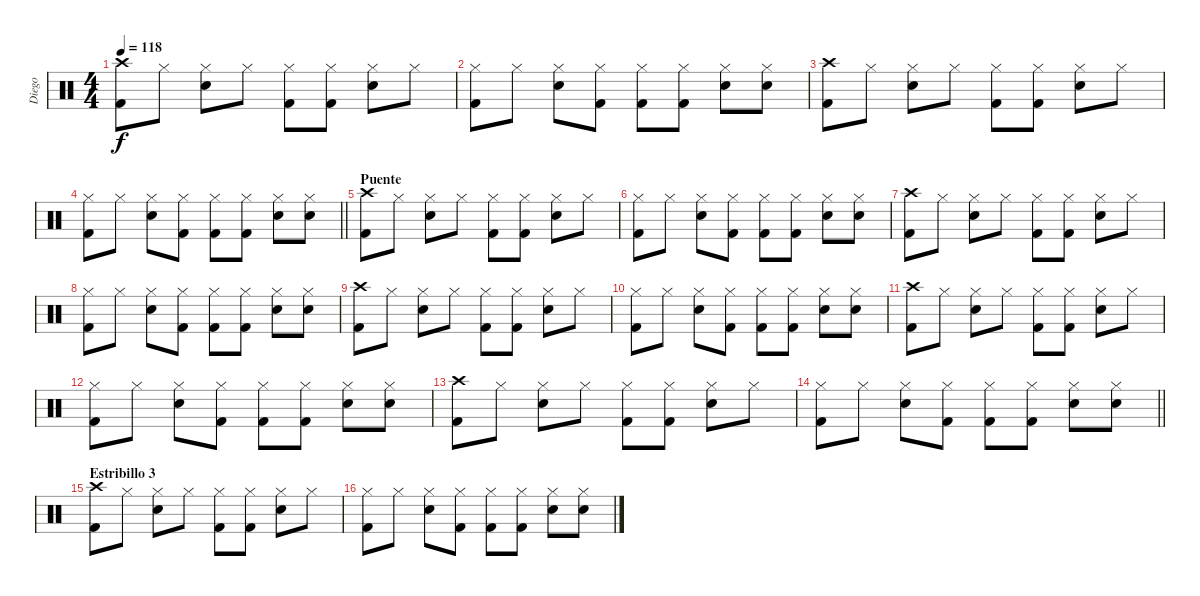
\track ("Diego" "Diego") {instrument percussion}
\staff {score}
\articulation defaults
\ts (4 4)
\tempo 118
\clef neutral
\ks c
("Crash high (hit)" "Kick (hit) 2").8{dy f} "Hi-Hat (closed)".8 ("Hi-Hat (closed)" "Snare (hit) 2").8 "Hi-Hat (closed)".8 ("Hi-Hat (closed)" "Kick (hit) 2").8 ("Hi-Hat (closed)" "Kick (hit) 2").8 ("Hi-Hat (closed)" "Snare (hit) 2").8 "Hi-Hat (closed)".8 |
("Hi-Hat (closed)" "Kick (hit) 2").8 "Hi-Hat (closed)".8 ("Hi-Hat (closed)" "Snare (hit) 2").8 ("Hi-Hat (closed)" "Kick (hit) 2").8 ("Hi-Hat (closed)" "Kick (hit) 2").8 ("Hi-Hat (closed)" "Kick (hit) 2").8 ("Hi-Hat (closed)" "Snare (hit) 2").8 ("Hi-Hat (closed)" "Snare (hit) 2").8 |
("Crash high (hit)" "Kick (hit) 2").8 "Hi-Hat (closed)".8 ("Hi-Hat (closed)" "Snare (hit) 2").8 "Hi-Hat (closed)".8 ("Hi-Hat (closed)" "Kick (hit) 2").8 ("Hi-Hat (closed)" "Kick (hit) 2").8 ("Hi-Hat (closed)" "Snare (hit) 2").8 "Hi-Hat (closed)".8 |
\barLineRight lightlight
("Hi-Hat (closed)" "Kick (hit) 2").8 "Hi-Hat (closed)".8 ("Hi-Hat (closed)" "Snare (hit) 2").8 ("Hi-Hat (closed)" "Kick (hit) 2").8 ("Hi-Hat (closed)" "Kick (hit) 2").8 ("Hi-Hat (closed)" "Kick (hit) 2").8 ("Hi-Hat (closed)" "Snare (hit) 2").8 ("Hi-Hat (closed)" "Snare (hit) 2").8 |
\section ("" "Puente")
("Crash high (hit)" "Kick (hit) 2").8 "Hi-Hat (closed)".8 ("Hi-Hat (closed)" "Snare (hit) 2").8 "Hi-Hat (closed)".8 ("Hi-Hat (closed)" "Kick (hit) 2").8 ("Hi-Hat (closed)" "Kick (hit) 2").8 ("Hi-Hat (closed)" "Snare (hit) 2").8 "Hi-Hat (closed)".8 |
("Hi-Hat (closed)" "Kick (hit) 2").8 "Hi-Hat (closed)".8 ("Hi-Hat (closed)" "Snare (hit) 2").8 ("Hi-Hat (closed)" "Kick (hit) 2").8 ("Hi-Hat (closed)" "Kick (hit) 2").8 ("Hi-Hat (closed)" "Kick (hit) 2").8 ("Hi-Hat (closed)" "Snare (hit) 2").8 ("Hi-Hat (closed)" "Snare (hit) 2").8 |
("Crash high (hit)" "Kick (hit) 2").8 "Hi-Hat (closed)".8 ("Hi-Hat (closed)" "Snare (hit) 2").8 "Hi-Hat (closed)".8 ("Hi-Hat (closed)" "Kick (hit) 2").8 ("Hi-Hat (closed)" "Kick (hit) 2").8 ("Hi-Hat (closed)" "Snare (hit) 2").8 "Hi-Hat (closed)".8 |
("Hi-Hat (closed)" "Kick (hit) 2").8 "Hi-Hat (closed)".8 ("Hi-Hat (closed)" "Snare (hit) 2").8 ("Hi-Hat (closed)" "Kick (hit) 2").8 ("Hi-Hat (closed)" "Kick (hit) 2").8 ("Hi-Hat (closed)" "Kick (hit) 2").8 ("Hi-Hat (closed)" "Snare (hit) 2").8 ("Hi-Hat (closed)" "Snare (hit) 2").8 |
("Crash high (hit)" "Kick (hit) 2").8 "Hi-Hat (closed)".8 ("Hi-Hat (closed)" "Snare (hit) 2").8 "Hi-Hat (closed)".8 ("Hi-Hat (closed)" "Kick (hit) 2").8 ("Hi-Hat (closed)" "Kick (hit) 2").8 ("Hi-Hat (closed)" "Snare (hit) 2").8 "Hi-Hat (closed)".8 |
("Hi-Hat (closed)" "Kick (hit) 2").8 "Hi-Hat (closed)".8 ("Hi-Hat (closed)" "Snare (hit) 2").8 ("Hi-Hat (closed)" "Kick (hit) 2").8 ("Hi-Hat (closed)" "Kick (hit) 2").8 ("Hi-Hat (closed)" "Kick (hit) 2").8 ("Hi-Hat (closed)" "Snare (hit) 2").8 ("Hi-Hat (closed)" "Snare (hit) 2").8 |
("Crash high (hit)" "Kick (hit) 2").8 "Hi-Hat (closed)".8 ("Hi-Hat (closed)" "Snare (hit) 2").8 "Hi-Hat (closed)".8 ("Hi-Hat (closed)" "Kick (hit) 2").8 ("Hi-Hat (closed)" "Kick (hit) 2").8 ("Hi-Hat (closed)" "Snare (hit) 2").8 "Hi-Hat (closed)".8 |
("Hi-Hat (closed)" "Kick (hit) 2").8 "Hi-Hat (closed)".8 ("Hi-Hat (closed)" "Snare (hit) 2").8 ("Hi-Hat (closed)" "Kick (hit) 2").8 ("Hi-Hat (closed)" "Kick (hit) 2").8 ("Hi-Hat (closed)" "Kick (hit) 2").8 ("Hi-Hat (closed)" "Snare (hit) 2").8 ("Hi-Hat (closed)" "Snare (hit) 2").8 |
("Crash high (hit)" "Kick (hit) 2").8 "Hi-Hat (closed)".8 ("Hi-Hat (closed)" "Snare (hit) 2").8 "Hi-Hat (closed)".8 ("Hi-Hat (closed)" "Kick (hit) 2").8 ("Hi-Hat (closed)" "Kick (hit) 2").8 ("Hi-Hat (closed)" "Snare (hit) 2").8 "Hi-Hat (closed)".8 |
\barLineRight lightlight
("Hi-Hat (closed)" "Kick (hit) 2").8 "Hi-Hat (closed)".8 ("Hi-Hat (closed)" "Snare (hit) 2").8 ("Hi-Hat (closed)" "Kick (hit) 2").8 ("Hi-Hat (closed)" "Kick (hit) 2").8 ("Hi-Hat (closed)" "Kick (hit) 2").8 ("Hi-Hat (closed)" "Snare (hit) 2").8 ("Hi-Hat (closed)" "Snare (hit) 2").8 |
\section ("" "Estribillo 3")
("Crash high (hit)" "Kick (hit) 2").8 "Hi-Hat (closed)".8 ("Hi-Hat (closed)" "Snare (hit) 2").8 "Hi-Hat (closed)".8 ("Hi-Hat (closed)" "Kick (hit) 2").8 ("Hi-Hat (closed)" "Kick (hit) 2").8 ("Hi-Hat (closed)" "Snare (hit) 2").8 "Hi-Hat (closed)".8 |
("Hi-Hat (closed)" "Kick (hit) 2").8 "Hi-Hat (closed)".8 ("Hi-Hat (closed)" "Snare (hit) 2").8 ("Hi-Hat (closed)" "Kick (hit) 2").8 ("Hi-Hat (closed)" "Kick (hit) 2").8 ("Hi-Hat (closed)" "Kick (hit) 2").8 ("Hi-Hat (closed)" "Snare (hit) 2").8 ("Hi-Hat (closed)" "Snare (hit) 2").8
